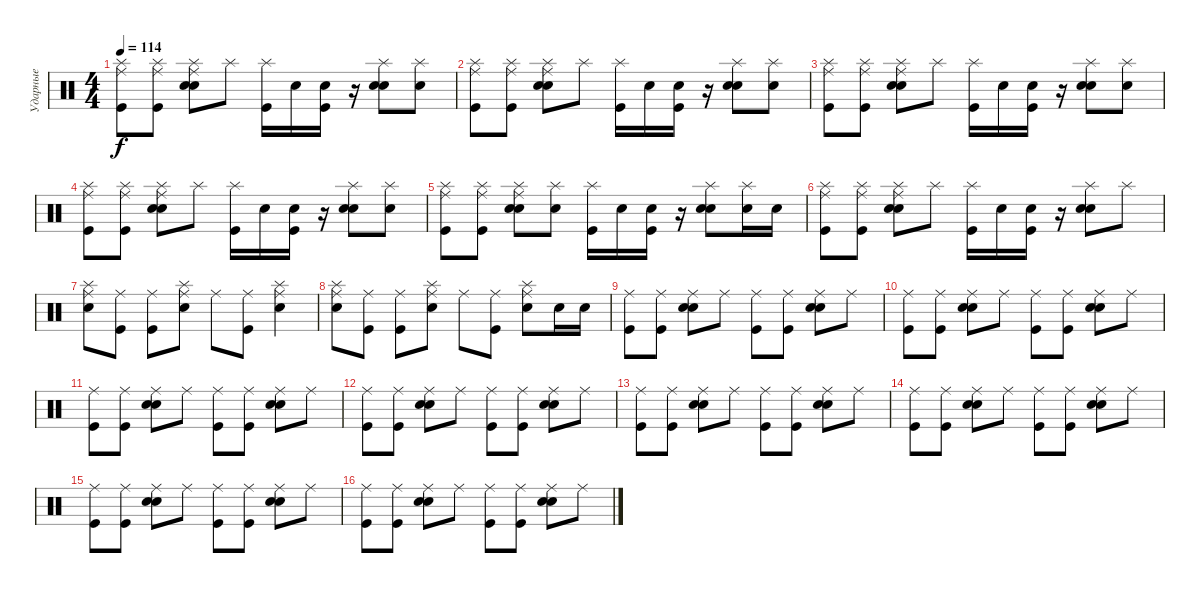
\track ("Ударные" "Ударные") {instrument percussion}
\staff {score}
\articulation defaults
\ts (4 4)
\tempo 114
\clef neutral
\ks c
("Splash (hit)" "Ride (middle)" "Kick (hit)").8{dy f} ("Splash (hit)" "Ride (middle)" "Kick (hit)").8 ("Splash (hit)" "Ride (middle)" "Electric Snare (hit)" "Snare (hit) 2").8 "Splash (hit)".8 ("Splash (hit)" "Kick (hit)").16 "Electric Snare (hit)".16 ("Snare (hit) 2" "Kick (hit)").16 r.16 ("Splash (hit)" "Electric Snare (hit)" "Snare (hit) 2").8 ("Splash (hit)" "Electric Snare (hit)").8 |
("Splash (hit)" "Ride (middle)" "Kick (hit)").8 ("Splash (hit)" "Ride (middle)" "Kick (hit)").8 ("Splash (hit)" "Ride (middle)" "Electric Snare (hit)" "Snare (hit) 2").8 "Splash (hit)".8 ("Splash (hit)" "Kick (hit)").16 "Electric Snare (hit)".16 ("Snare (hit) 2" "Kick (hit)").16 r.16 ("Splash (hit)" "Electric Snare (hit)" "Snare (hit) 2").8 ("Splash (hit)" "Electric Snare (hit)").8 |
("Splash (hit)" "Ride (middle)" "Kick (hit)").8 ("Splash (hit)" "Ride (middle)" "Kick (hit)").8 ("Splash (hit)" "Ride (middle)" "Electric Snare (hit)" "Snare (hit) 2").8 "Splash (hit)".8 ("Splash (hit)" "Kick (hit)").16 "Electric Snare (hit)".16 ("Snare (hit) 2" "Kick (hit)").16 r.16 ("Splash (hit)" "Electric Snare (hit)" "Snare (hit) 2").8 ("Splash (hit)" "Electric Snare (hit)").8 |
("Splash (hit)" "Ride (middle)" "Kick (hit)").8 ("Splash (hit)" "Ride (middle)" "Kick (hit)").8 ("Splash (hit)" "Ride (middle)" "Electric Snare (hit)" "Snare (hit) 2").8 "Splash (hit)".8 ("Splash (hit)" "Kick (hit)").16 "Electric Snare (hit)".16 ("Snare (hit) 2" "Kick (hit)").16 r.16 ("Splash (hit)" "Electric Snare (hit)" "Snare (hit) 2").8 ("Splash (hit)" "Electric Snare (hit)").8 |
("Splash (hit)" "Ride (middle)" "Kick (hit)").8 ("Splash (hit)" "Ride (middle)" "Kick (hit)").8 ("Splash (hit)" "Ride (middle)" "Electric Snare (hit)" "Snare (hit) 2").8 ("Splash (hit)" "Electric Snare (hit)").8 ("Splash (hit)" "Kick (hit)").16 "Electric Snare (hit)".16 ("Snare (hit) 2" "Kick (hit)").16 r.16 ("Splash (hit)" "Electric Snare (hit)" "Snare (hit) 2").8 ("Splash (hit)" "Electric Snare (hit)").16 "Electric Snare (hit)".16 |
("Splash (hit)" "Ride (middle)" "Kick (hit)").8 ("Splash (hit)" "Ride (middle)" "Kick (hit)").8 ("Splash (hit)" "Ride (middle)" "Electric Snare (hit)" "Snare (hit) 2").8 "Splash (hit)".8 ("Splash (hit)" "Kick (hit)").16 "Electric Snare (hit)".16 ("Snare (hit) 2" "Kick (hit)").16 r.16 ("Splash (hit)" "Electric Snare (hit)" "Snare (hit) 2").8 "Splash (hit)".8 |
("Splash (hit)" "Ride (middle)" "Electric Snare (hit)").8 ("Ride (middle)" "Kick (hit)").8 ("Ride (middle)" "Kick (hit)").8 ("Splash (hit)" "Ride (middle)" "Electric Snare (hit)").8 "Ride (middle)".8 ("Ride (middle)" "Kick (hit)").8 ("Splash (hit)" "Ride (middle)" "Electric Snare (hit)").4 |
("Splash (hit)" "Ride (middle)" "Electric Snare (hit)").8 ("Ride (middle)" "Kick (hit)").8 ("Ride (middle)" "Kick (hit)").8 ("Splash (hit)" "Ride (middle)" "Electric Snare (hit)").8 "Ride (middle)".8 ("Ride (middle)" "Kick (hit)").8 ("Splash (hit)" "Ride (middle)" "Electric Snare (hit)").8 "Electric Snare (hit)".16 "Electric Snare (hit)".16 |
("Ride (middle)" "Kick (hit)").8 ("Ride (middle)" "Kick (hit)").8 ("Ride (middle)" "Electric Snare (hit)" "Snare (hit) 2").8 "Ride (middle)".8 ("Ride (middle)" "Kick (hit)").8 ("Ride (middle)" "Kick (hit)").8 ("Ride (middle)" "Electric Snare (hit)" "Snare (hit) 2").8 "Ride (middle)".8 |
("Ride (middle)" "Kick (hit)").8 ("Ride (middle)" "Kick (hit)").8 ("Ride (middle)" "Electric Snare (hit)" "Snare (hit) 2").8 "Ride (middle)".8 ("Ride (middle)" "Kick (hit)").8 ("Ride (middle)" "Kick (hit)").8 ("Ride (middle)" "Electric Snare (hit)" "Snare (hit) 2").8 "Ride (middle)".8 |
("Ride (middle)" "Kick (hit)").8 ("Ride (middle)" "Kick (hit)").8 ("Ride (middle)" "Electric Snare (hit)" "Snare (hit) 2").8 "Ride (middle)".8 ("Ride (middle)" "Kick (hit)").8 ("Ride (middle)" "Kick (hit)").8 ("Ride (middle)" "Electric Snare (hit)" "Snare (hit) 2").8 "Ride (middle)".8 |
("Ride (middle)" "Kick (hit)").8 ("Ride (middle)" "Kick (hit)").8 ("Ride (middle)" "Electric Snare (hit)" "Snare (hit) 2").8 "Ride (middle)".8 ("Ride (middle)" "Kick (hit)").8 ("Ride (middle)" "Kick (hit)").8 ("Ride (middle)" "Electric Snare (hit)" "Snare (hit) 2").8 "Ride (middle)".8 |
("Ride (middle)" "Kick (hit)").8 ("Ride (middle)" "Kick (hit)").8 ("Ride (middle)" "Electric Snare (hit)" "Snare (hit) 2").8 "Ride (middle)".8 ("Ride (middle)" "Kick (hit)").8 ("Ride (middle)" "Kick (hit)").8 ("Ride (middle)" "Electric Snare (hit)" "Snare (hit) 2").8 "Ride (middle)".8 |
("Ride (middle)" "Kick (hit)").8 ("Ride (middle)" "Kick (hit)").8 ("Ride (middle)" "Electric Snare (hit)" "Snare (hit) 2").8 "Ride (middle)".8 ("Ride (middle)" "Kick (hit)").8 ("Ride (middle)" "Kick (hit)").8 ("Ride (middle)" "Electric Snare (hit)" "Snare (hit) 2").8 "Ride (middle)".8 |
("Ride (middle)" "Kick (hit)").8 ("Ride (middle)" "Kick (hit)").8 ("Ride (middle)" "Electric Snare (hit)" "Snare (hit) 2").8 "Ride (middle)".8 ("Ride (middle)" "Kick (hit)").8 ("Ride (middle)" "Kick (hit)").8 ("Ride (middle)" "Electric Snare (hit)" "Snare (hit) 2").8 "Ride (middle)".8 |
("Ride (middle)" "Kick (hit)").8 ("Ride (middle)" "Kick (hit)").8 ("Ride (middle)" "Electric Snare (hit)" "Snare (hit) 2").8 "Ride (middle)".8 ("Ride (middle)" "Kick (hit)").8 ("Ride (middle)" "Kick (hit)").8 ("Ride (middle)" "Electric Snare (hit)" "Snare (hit) 2").8 "Ride (middle)".8
